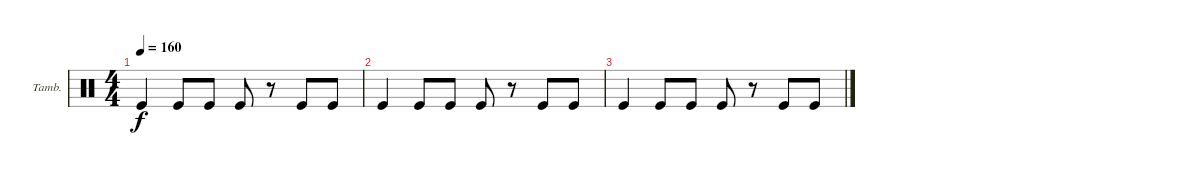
\bracketExtendMode groupsimilarinstruments
\firstSystemTrackNameOrientation horizontal
\otherSystemsTrackNameOrientation horizontal
\track ("Tambourine" "Tamb.") {instrument percussion}
\staff {score}
\articulation defaults
\ts (4 4)
\tempo 160
\clef neutral
\ks c "Kick (hit)".4{dy f} "Kick (hit)".8 "Kick (hit)".8 "Kick (hit)".8
r.8 "Kick (hit)".8 "Kick (hit)".8 |
"Kick (hit)".4 "Kick (hit)".8 "Kick (hit)".8 "Kick (hit)".8 r.8 "Kick (hit)".8 "Kick (hit)".8 |
"Kick (hit)".4 "Kick (hit)".8 "Kick (hit)".8 "Kick (hit)".8 r.8 "Kick (hit)".8 "Kick (hit)".8
